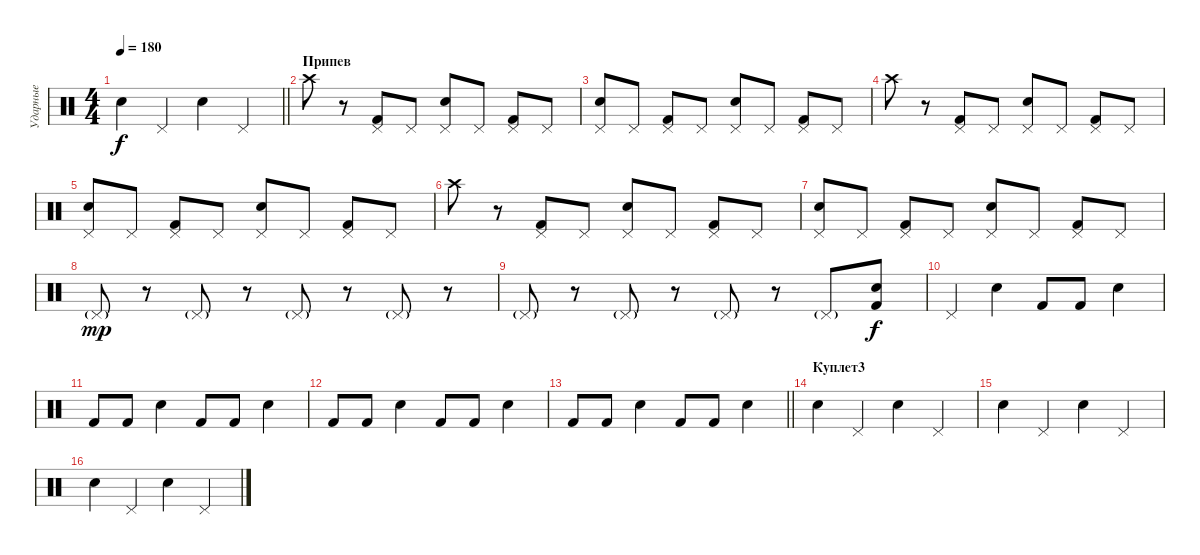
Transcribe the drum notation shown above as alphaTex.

\track ("Ударные" "Ударные") {instrument percussion}
\staff {score}
\articulation defaults
\ts (4 4)
\tempo 180
\clef neutral
\barLineRight lightlight
\ks c "Snare (hit) 2".4{dy f} "Pedal Hi-Hat (hit)".4 "Snare (hit) 2".4 "Pedal Hi-Hat (hit)".4
|
\section ("" "Припев")
"Crash high (hit)".8 r.8 ("Kick (hit) 2" "Pedal Hi-Hat (hit)").8 "Pedal Hi-Hat (hit)".8 ("Snare (hit) 2" "Pedal Hi-Hat (hit)").8 "Pedal Hi-Hat (hit)".8 ("Kick (hit) 2" "Pedal Hi-Hat (hit)").8 "Pedal Hi-Hat (hit)".8 |
("Snare (hit) 2" "Pedal Hi-Hat (hit)").8 "Pedal Hi-Hat (hit)".8 ("Kick (hit) 2" "Pedal Hi-Hat (hit)").8 "Pedal Hi-Hat (hit)".8 ("Snare (hit) 2" "Pedal Hi-Hat (hit)").8 "Pedal Hi-Hat (hit)".8 ("Kick (hit) 2" "Pedal Hi-Hat (hit)").8 "Pedal Hi-Hat (hit)".8 |
"Crash high (hit)".8 r.8 ("Kick (hit) 2" "Pedal Hi-Hat (hit)").8 "Pedal Hi-Hat (hit)".8 ("Snare (hit) 2" "Pedal Hi-Hat (hit)").8 "Pedal Hi-Hat (hit)".8 ("Kick (hit) 2" "Pedal Hi-Hat (hit)").8 "Pedal Hi-Hat (hit)".8 |
("Snare (hit) 2" "Pedal Hi-Hat (hit)").8 "Pedal Hi-Hat (hit)".8 ("Kick (hit) 2" "Pedal Hi-Hat (hit)").8 "Pedal Hi-Hat (hit)".8 ("Snare (hit) 2" "Pedal Hi-Hat (hit)").8 "Pedal Hi-Hat (hit)".8 ("Kick (hit) 2" "Pedal Hi-Hat (hit)").8 "Pedal Hi-Hat (hit)".8 |
"Crash high (hit)".8 r.8 ("Kick (hit) 2" "Pedal Hi-Hat (hit)").8 "Pedal Hi-Hat (hit)".8 ("Snare (hit) 2" "Pedal Hi-Hat (hit)").8 "Pedal Hi-Hat (hit)".8 ("Kick (hit) 2" "Pedal Hi-Hat (hit)").8 "Pedal Hi-Hat (hit)".8 |
("Snare (hit) 2" "Pedal Hi-Hat (hit)").8 "Pedal Hi-Hat (hit)".8 ("Kick (hit) 2" "Pedal Hi-Hat (hit)").8 "Pedal Hi-Hat (hit)".8 ("Snare (hit) 2" "Pedal Hi-Hat (hit)").8 "Pedal Hi-Hat (hit)".8 ("Kick (hit) 2" "Pedal Hi-Hat (hit)").8 "Pedal Hi-Hat (hit)".8 |
"Pedal Hi-Hat (hit)"{g}.8{dy mp} r.8 "Pedal Hi-Hat (hit)"{g}.8 r.8 "Pedal Hi-Hat (hit)"{g}.8 r.8 "Pedal Hi-Hat (hit)"{g}.8 r.8 |
"Pedal Hi-Hat (hit)"{g}.8 r.8 "Pedal Hi-Hat (hit)"{g}.8 r.8 "Pedal Hi-Hat (hit)"{g}.8 r.8 "Pedal Hi-Hat (hit)"{g}.8 ("Kick (hit) 2" "Snare (hit) 2").8{dy f} |
"Pedal Hi-Hat (hit)".4 "Electric Snare (hit)".4 "Kick (hit) 2".8 "Kick (hit) 2".8 "Electric Snare (hit)".4 |
"Kick (hit) 2".8 "Kick (hit) 2".8 "Electric Snare (hit)".4 "Kick (hit) 2".8 "Kick (hit) 2".8 "Electric Snare (hit)".4 |
"Kick (hit) 2".8 "Kick (hit) 2".8 "Electric Snare (hit)".4 "Kick (hit) 2".8 "Kick (hit) 2".8 "Electric Snare (hit)".4 |
\barLineRight lightlight "Kick (hit) 2".8 "Kick (hit) 2".8 "Electric Snare (hit)".4 "Kick (hit) 2".8 "Kick (hit) 2".8 "Electric Snare (hit)".4
|
\section ("" "Куплет3")
"Snare (hit) 2".4 "Pedal Hi-Hat (hit)".4 "Snare (hit) 2".4 "Pedal Hi-Hat (hit)".4 |
"Snare (hit) 2".4 "Pedal Hi-Hat (hit)".4 "Snare (hit) 2".4 "Pedal Hi-Hat (hit)".4 |
"Snare (hit) 2".4 "Pedal Hi-Hat (hit)".4 "Snare (hit) 2".4 "Pedal Hi-Hat (hit)".4
